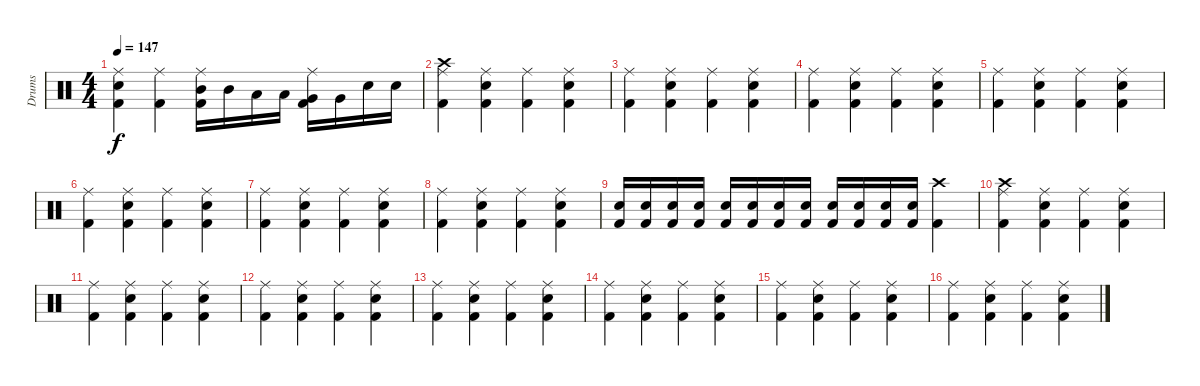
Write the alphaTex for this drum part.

\track ("Drums" "Drums") {instrument percussion}
\staff {score}
\articulation defaults
\ts (4 4)
\tempo 147
\clef neutral
\ks c
("Ride (middle)" "Electric Snare (hit)" "Kick (hit) 2").4{dy f} ("Ride (middle)" "Kick (hit) 2").4 ("Ride (middle)" "Mid Tom (hit)" "Kick (hit) 2").16 "Mid Tom (hit)".16 "Low Tom (hit)".16 "Low Tom (hit)".16 ("Ride (middle)" "Very Low Tom (hit)" "Kick (hit) 2").16 "Very Low Tom (hit)".16 "Snare (hit) 2".16 "Snare (hit) 2".16 |
("Crash high (hit)" "Ride (middle)" "Kick (hit) 2").4 ("Ride (middle)" "Electric Snare (hit)" "Kick (hit) 2").4 ("Ride (middle)" "Kick (hit) 2").4 ("Ride (middle)" "Electric Snare (hit)" "Kick (hit) 2").4 |
("Ride (middle)" "Kick (hit) 2").4 ("Ride (middle)" "Electric Snare (hit)" "Kick (hit) 2").4 ("Ride (middle)" "Kick (hit) 2").4 ("Ride (middle)" "Electric Snare (hit)" "Kick (hit) 2").4 |
("Ride (middle)" "Kick (hit) 2").4 ("Ride (middle)" "Electric Snare (hit)" "Kick (hit) 2").4 ("Ride (middle)" "Kick (hit) 2").4 ("Ride (middle)" "Electric Snare (hit)" "Kick (hit) 2").4 |
("Ride (middle)" "Kick (hit) 2").4 ("Ride (middle)" "Electric Snare (hit)" "Kick (hit) 2").4 ("Ride (middle)" "Kick (hit) 2").4 ("Ride (middle)" "Electric Snare (hit)" "Kick (hit) 2").4 |
("Ride (middle)" "Kick (hit) 2").4 ("Ride (middle)" "Electric Snare (hit)" "Kick (hit) 2").4 ("Ride (middle)" "Kick (hit) 2").4 ("Ride (middle)" "Electric Snare (hit)" "Kick (hit) 2").4 |
("Ride (middle)" "Kick (hit) 2").4 ("Ride (middle)" "Electric Snare (hit)" "Kick (hit) 2").4 ("Ride (middle)" "Kick (hit) 2").4 ("Ride (middle)" "Electric Snare (hit)" "Kick (hit) 2").4 |
("Ride (middle)" "Kick (hit) 2").4 ("Ride (middle)" "Electric Snare (hit)" "Kick (hit) 2").4 ("Ride (middle)" "Kick (hit) 2").4 ("Ride (middle)" "Electric Snare (hit)" "Kick (hit) 2").4 |
("Electric Snare (hit)" "Kick (hit) 2").16 ("Electric Snare (hit)" "Kick (hit) 2").16 ("Electric Snare (hit)" "Kick (hit) 2").16 ("Electric Snare (hit)" "Kick (hit) 2").16 ("Electric Snare (hit)" "Kick (hit) 2").16 ("Electric Snare (hit)" "Kick (hit) 2").16 ("Electric Snare (hit)" "Kick (hit) 2").16 ("Electric Snare (hit)" "Kick (hit) 2").16 ("Electric Snare (hit)" "Kick (hit) 2").16 ("Electric Snare (hit)" "Kick (hit) 2").16 ("Electric Snare (hit)" "Kick (hit) 2").16 ("Electric Snare (hit)" "Kick (hit) 2").16 ("Crash high (hit)" "Kick (hit) 2").4 |
("Crash high (hit)" "Ride (middle)" "Kick (hit) 2").4 ("Ride (middle)" "Electric Snare (hit)" "Kick (hit) 2").4 ("Ride (middle)" "Kick (hit) 2").4 ("Ride (middle)" "Electric Snare (hit)" "Kick (hit) 2").4 |
("Ride (middle)" "Kick (hit) 2").4 ("Ride (middle)" "Electric Snare (hit)" "Kick (hit) 2").4 ("Ride (middle)" "Kick (hit) 2").4 ("Ride (middle)" "Electric Snare (hit)" "Kick (hit) 2").4 |
("Ride (middle)" "Kick (hit) 2").4 ("Ride (middle)" "Electric Snare (hit)" "Kick (hit) 2").4 ("Ride (middle)" "Kick (hit) 2").4 ("Ride (middle)" "Electric Snare (hit)" "Kick (hit) 2").4 |
("Ride (middle)" "Kick (hit) 2").4 ("Ride (middle)" "Electric Snare (hit)" "Kick (hit) 2").4 ("Ride (middle)" "Kick (hit) 2").4 ("Ride (middle)" "Electric Snare (hit)" "Kick (hit) 2").4 |
("Ride (middle)" "Kick (hit) 2").4 ("Ride (middle)" "Electric Snare (hit)" "Kick (hit) 2").4 ("Ride (middle)" "Kick (hit) 2").4 ("Ride (middle)" "Electric Snare (hit)" "Kick (hit) 2").4 |
("Ride (middle)" "Kick (hit) 2").4 ("Ride (middle)" "Electric Snare (hit)" "Kick (hit) 2").4 ("Ride (middle)" "Kick (hit) 2").4 ("Ride (middle)" "Electric Snare (hit)" "Kick (hit) 2").4 |
("Ride (middle)" "Kick (hit) 2").4 ("Ride (middle)" "Electric Snare (hit)" "Kick (hit) 2").4 ("Ride (middle)" "Kick (hit) 2").4 ("Ride (middle)" "Electric Snare (hit)" "Kick (hit) 2").4
